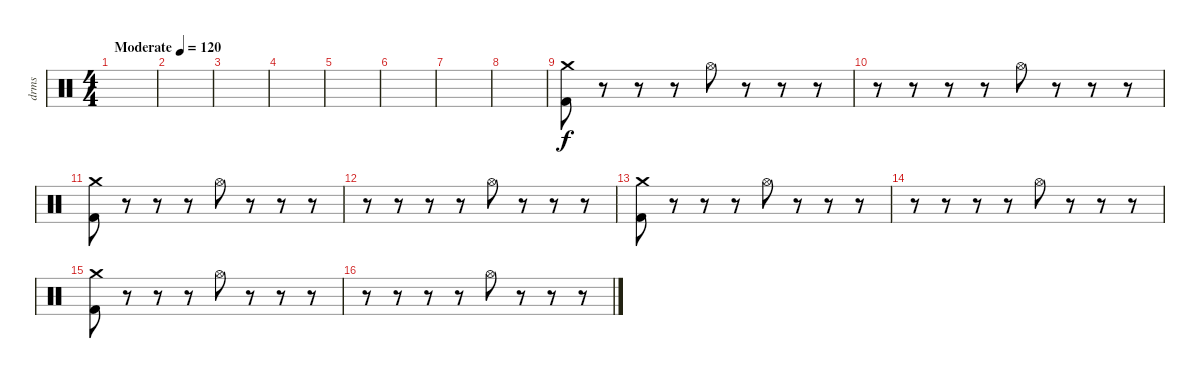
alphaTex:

\track ("drms" "drms") {instrument percussion}
\staff {score}
\articulation defaults
\ts (4 4)
\tempo (120 "Moderate")
\tempo 117
\tempo (120 "Moderate")
\clef neutral
\ks c
|
|
|
|
|
|
|
|
("Crash medium (hit)" "Kick (hit) 2").8 r.8 r.8 r.8 "Hi-Hat (open)".8 r.8 r.8 r.8 |
r.8 r.8 r.8 r.8 "Hi-Hat (open)".8 r.8 r.8 r.8 |
("Crash medium (hit)" "Kick (hit) 2").8 r.8 r.8 r.8 "Hi-Hat (open)".8 r.8 r.8 r.8 |
r.8 r.8 r.8 r.8 "Hi-Hat (open)".8 r.8 r.8 r.8 |
("Crash medium (hit)" "Kick (hit) 2").8 r.8 r.8 r.8 "Hi-Hat (open)".8 r.8 r.8 r.8 |
r.8 r.8 r.8 r.8 "Hi-Hat (open)".8 r.8 r.8 r.8 |
("Crash medium (hit)" "Kick (hit) 2").8 r.8 r.8 r.8 "Hi-Hat (open)".8 r.8 r.8 r.8 |
r.8 r.8 r.8 r.8 "Hi-Hat (open)".8 r.8 r.8 r.8
